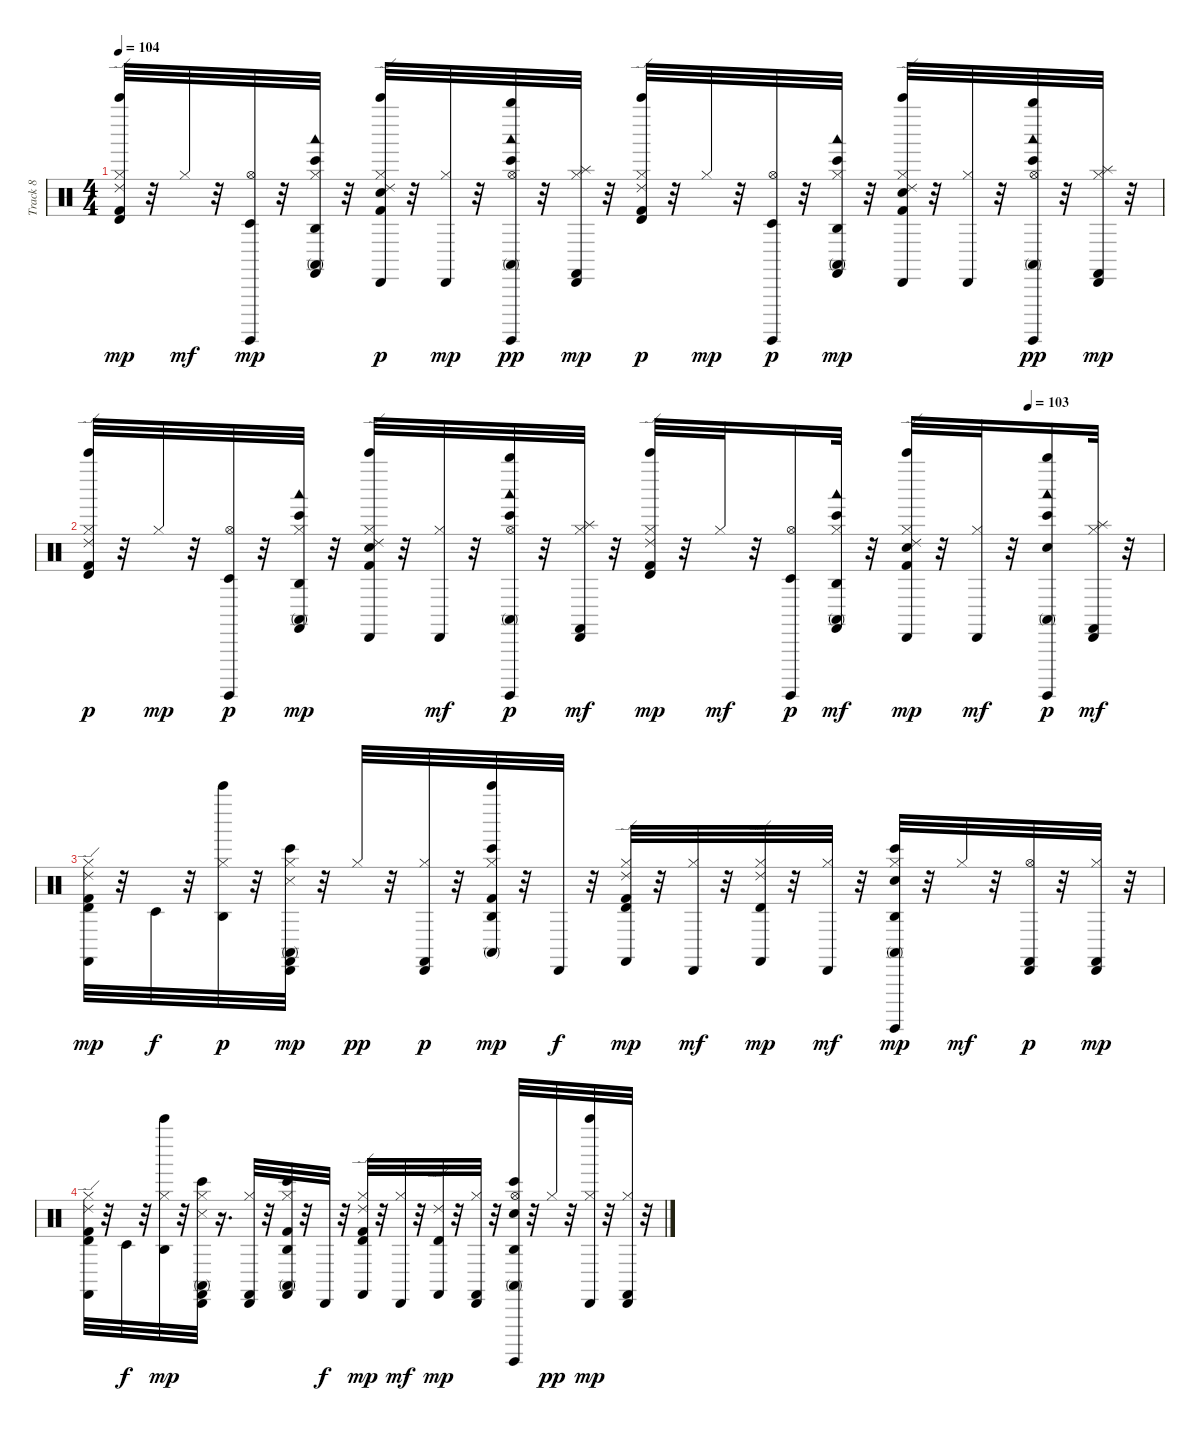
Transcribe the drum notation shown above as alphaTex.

\track ("Track 8" "Track 8") {instrument percussion}
\staff {score}
\articulation defaults
\ts (4 4)
\tempo 104
\clef neutral
\ks c
("Timbale high (hit)" "Ride (edge) 2" "Kick (hit) 2" "Bell Tree (hit)" "Hi-Hat (closed)").32{dy mp} r.32 "Hi-Hat (closed)".32{dy mf} r.32 ("Timbale low (hit)" "Surdo (hit)" "Hi-Hat (open)").32{dy mp} r.32 ("Agogo high (hit)" "Conga high (mute)" "Bongo High (hit)" "Woodblock low (hit)" "Castanets (hit)" "Hi-Hat (closed)").32 r.32 ("Cabasa (hit)" "Ride (edge) 2" "Kick (hit) 2" "Electric Snare (hit)" "Bell Tree (hit)" "Hi-Hat (closed)").32{dy p} r.32 ("Cabasa (hit)" "Hi-Hat (closed)").32{dy mp} r.32 ("Whistle high (hit)" "Bongo High (hit)" "Conga high (mute)" "Woodblock low (hit)" "Surdo (hit)" "Hi-Hat (open)").32{dy pp} r.32 ("Cabasa (hit)" "Castanets (hit)" "Hi-Hat (closed)" "Splash (hit)").32{dy mp} r.32 ("Timbale high (hit)" "Ride (edge) 2" "Kick (hit) 2" "Bell Tree (hit)" "Hi-Hat (closed)").32{dy p} r.32 "Hi-Hat (closed)".32{dy mp} r.32 ("Timbale low (hit)" "Surdo (hit)" "Hi-Hat (open)").32{dy p} r.32 ("Agogo high (hit)" "Bongo High (hit)" "Conga high (mute)" "Woodblock low (hit)" "Castanets (hit)" "Hi-Hat (closed)").32{dy mp} r.32 ("Cabasa (hit)" "Ride (edge) 2" "Kick (hit) 2" "Electric Snare (hit)" "Bell Tree (hit)" "Hi-Hat (closed)").32 r.32 ("Cabasa (hit)" "Hi-Hat (closed)").32 r.32 ("Whistle high (hit)" "Conga high (mute)" "Bongo High (hit)" "Woodblock low (hit)" "Surdo (hit)" "Hi-Hat (open)").32{dy pp} r.32 ("Cabasa (hit)" "Castanets (hit)" "Hi-Hat (closed)" "Splash (hit)").32{dy mp} r.32 |
\tempo (103 0.875)
("Timbale high (hit)" "Ride (edge) 2" "Kick (hit) 2" "Bell Tree (hit)" "Hi-Hat (closed)").32{dy p} r.32 "Hi-Hat (closed)".32{dy mp} r.32 ("Timbale low (hit)" "Surdo (hit)" "Hi-Hat (open)").32{dy p} r.32 ("Woodblock low (hit)" "Agogo high (hit)" "Bongo High (hit)" "Conga high (mute)" "Castanets (hit)" "Hi-Hat (closed)").32{dy mp} r.32 ("Cabasa (hit)" "Ride (edge) 2" "Kick (hit) 2" "Electric Snare (hit)" "Bell Tree (hit)" "Hi-Hat (closed)").32 r.32 ("Cabasa (hit)" "Hi-Hat (closed)").32{dy mf} r.32 ("Woodblock low (hit)" "Whistle high (hit)" "Bongo High (hit)" "Conga high (mute)" "Surdo (hit)" "Hi-Hat (open)").32{dy p} r.32 ("Cabasa (hit)" "Castanets (hit)" "Hi-Hat (closed)" "Splash (hit)").32{dy mf} r.32 ("Timbale high (hit)" "Ride (edge) 2" "Kick (hit) 2" "Bell Tree (hit)" "Hi-Hat (closed)").32{dy mp} r.32 "Hi-Hat (closed)".32{dy mf} r.32 ("Timbale low (hit)" "Surdo (hit)" "Hi-Hat (open)").16{dy p} ("Woodblock low (hit)" "Agogo high (hit)" "Bongo High (hit)" "Conga high (mute)" "Castanets (hit)" "Hi-Hat (closed)").32{dy mf} r.32 ("Cabasa (hit)" "Ride (edge) 2" "Kick (hit) 2" "Electric Snare (hit)" "Bell Tree (hit)" "Hi-Hat (closed)").32{dy mp} r.32 ("Cabasa (hit)" "Hi-Hat (closed)").32{dy mf} r.32 ("Woodblock low (hit)" "Whistle high (hit)" "Bongo High (hit)" "Conga high (mute)" "Electric Snare (hit)" "Surdo (hit)").16{dy p} ("Cabasa (hit)" "Castanets (hit)" "Hi-Hat (closed)" "Splash (hit)").32{dy mf} r.32 |
("Ride (edge) 2" "Timbale high (hit)" "Kick (hit) 2" "Hi-Hat (closed)" "Castanets (hit)").32{dy mp} r.32 "Timbale low (hit)".32{dy f} r.32 ("Agogo high (hit)" "Hi-Hat (closed)" "Bell Tree (hit)").32{dy p} r.32 ("Bongo High (hit)" "Conga high (mute)" "Cabasa (hit)" "Snare (side stick) 3" "Hi-Hat (closed)" "Castanets (hit)").32{dy mp} r.32 "Hi-Hat (closed)".32{dy pp} r.32 ("Cabasa (hit)" "Hi-Hat (closed)" "Castanets (hit)").32{dy p} r.32 ("Bongo High (hit)" "Conga high (mute)" "Agogo high (hit)" "Kick (hit) 2" "Hi-Hat (closed)" "Bell Tree (hit)").32{dy mp} r.32 "Cabasa (hit)".32{dy f} r.32 ("Ride (edge) 2" "Timbale high (hit)" "Kick (hit) 2" "Hi-Hat (closed)" "Castanets (hit)").32{dy mp} r.32 ("Cabasa (hit)" "Hi-Hat (closed)").32{dy mf} r.32 ("Ride (edge) 2" "Timbale high (hit)" "Hi-Hat (closed)" "Castanets (hit)").32{dy mp} r.32 ("Cabasa (hit)" "Hi-Hat (closed)").32{dy mf} r.32 ("Bongo High (hit)" "Conga high (mute)" "Agogo high (hit)" "Electric Snare (hit)" "Hi-Hat (closed)" "Surdo (hit)").32{dy mp} r.32 "Hi-Hat (closed)".32{dy mf} r.32 ("Cabasa (hit)" "Hi-Hat (open)" "Castanets (hit)").32{dy p} r.32 ("Cabasa (hit)" "Hi-Hat (closed)" "Castanets (hit)").32{dy mp} r.32 |
("Ride (edge) 2" "Timbale high (hit)" "Kick (hit) 2" "Hi-Hat (closed)" "Castanets (hit)").32 r.32 "Timbale low (hit)".32{dy f} r.32 ("Agogo high (hit)" "Hi-Hat (closed)" "Bell Tree (hit)").32{dy mp} r.32 ("Bongo High (hit)" "Conga high (mute)" "Cabasa (hit)" "Snare (side stick) 3" "Hi-Hat (closed)" "Castanets (hit)").32 r.16{d} ("Cabasa (hit)" "Hi-Hat (closed)" "Castanets (hit)").32 r.32 ("Bongo High (hit)" "Conga high (mute)" "Agogo high (hit)" "Kick (hit) 2" "Hi-Hat (closed)" "Castanets (hit)").32 r.32 "Cabasa (hit)".32{dy f} r.32 ("Ride (edge) 2" "Timbale high (hit)" "Kick (hit) 2" "Hi-Hat (closed)" "Castanets (hit)").32{dy mp} r.32 ("Cabasa (hit)" "Hi-Hat (closed)").32{dy mf} r.32 ("Ride (edge) 2" "Timbale high (hit)" "Castanets (hit)").32{dy mp} r.32 ("Cabasa (hit)" "Hi-Hat (closed)" "Castanets (hit)").32 r.32 ("Bongo High (hit)" "Conga high (mute)" "Agogo high (hit)" "Electric Snare (hit)" "Hi-Hat (open)" "Surdo (hit)").32 r.32 "Hi-Hat (closed)".32{dy pp} r.32 ("Cabasa (hit)" "Hi-Hat (closed)" "Bell Tree (hit)").32{dy mp} r.32 ("Cabasa (hit)" "Hi-Hat (closed)" "Castanets (hit)").32 r.32
